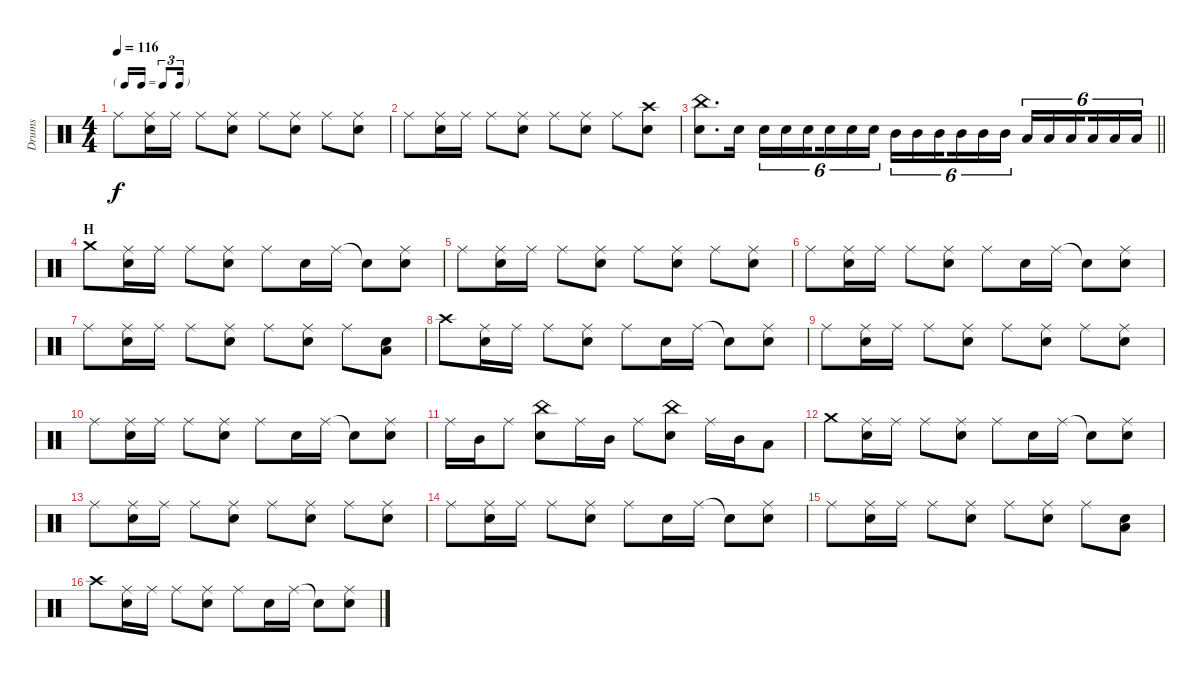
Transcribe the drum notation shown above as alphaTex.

\track ("Drums" "Drums") {instrument percussion}
\staff {score}
\articulation defaults
\ts (4 4)
\tf triplet16th
\tempo 116
\clef neutral
\ks c "Ride (middle)".8{dy f}
("Ride (middle)" "Snare (hit) 2").16 "Ride (middle)".16 "Ride (middle)".8 ("Ride (middle)" "Snare (hit) 2").8 "Ride (middle)".8 ("Ride (middle)" "Snare (hit) 2").8 "Ride (middle)".8 ("Ride (middle)" "Snare (hit) 2").8 |
"Ride (middle)".8 ("Ride (middle)" "Snare (hit) 2").16 "Ride (middle)".16 "Ride (middle)".8 ("Ride (middle)" "Snare (hit) 2").8 "Ride (middle)".8 ("Ride (middle)" "Snare (hit) 2").8 "Ride (middle)".8 ("Crash high (hit)" "Snare (hit) 2").8 |
\barLineRight lightlight
("China (hit)" "Snare (hit) 2").8{d} "Snare (hit) 2".16 "Snare (hit) 2".16{tu (6 4)} "Snare (hit) 2".16{tu (6 4)} "Snare (hit) 2".16{tu (6 4) beam splitsecondary} "Snare (hit) 2".16{tu (6 4)} "Snare (hit) 2".16{tu (6 4)} "Snare (hit) 2".16{tu (6 4)} "Mid Tom (hit)".16{tu (6 4)} "Mid Tom (hit)".16{tu (6 4)} "Mid Tom (hit)".16{tu (6 4) beam splitsecondary} "Mid Tom (hit)".16{tu (6 4)} "Mid Tom (hit)".16{tu (6 4)} "Mid Tom (hit)".16{tu (6 4)} "Low Tom (hit)".16{tu (6 4)} "Low Tom (hit)".16{tu (6 4)} "Low Tom (hit)".16{tu (6 4) beam splitsecondary} "Low Tom (hit)".16{tu (6 4)} "Low Tom (hit)".16{tu (6 4)} "Low Tom (hit)".16{tu (6 4)} |
\section ("" "H")
"Crash medium (hit)".8 ("Ride (middle)" "Snare (hit) 2").16 "Ride (middle)".16 "Ride (middle)".8 ("Ride (middle)" "Snare (hit) 2").8 "Ride (middle)".8 "Snare (hit) 2".16 "Ride (middle)".16 "Snare (hit)"{t}.8 ("Ride (middle)" "Snare (hit) 2").8 |
"Ride (middle)".8 ("Ride (middle)" "Snare (hit) 2").16 "Ride (middle)".16 "Ride (middle)".8 ("Ride (middle)" "Snare (hit) 2").8 "Ride (middle)".8 ("Ride (middle)" "Snare (hit) 2").8 "Ride (middle)".8 ("Ride (middle)" "Snare (hit) 2").8 |
"Ride (middle)".8 ("Ride (middle)" "Snare (hit) 2").16 "Ride (middle)".16 "Ride (middle)".8 ("Ride (middle)" "Snare (hit) 2").8 "Ride (middle)".8 "Snare (hit) 2".16 "Ride (middle)".16 "Snare (hit)"{t}.8 ("Ride (middle)" "Snare (hit) 2").8 |
"Ride (middle)".8 ("Ride (middle)" "Snare (hit) 2").16 "Ride (middle)".16 "Ride (middle)".8 ("Ride (middle)" "Snare (hit) 2").8 "Ride (middle)".8 ("Ride (middle)" "Snare (hit) 2").8 "Ride (middle)".8 ("Low Tom (hit)" "Snare (hit) 2").8 |
"Crash high (hit)".8 ("Ride (middle)" "Snare (hit) 2").16 "Ride (middle)".16 "Ride (middle)".8 ("Ride (middle)" "Snare (hit) 2").8 "Ride (middle)".8 "Snare (hit) 2".16 "Ride (middle)".16 "Snare (hit)"{t}.8 ("Ride (middle)" "Snare (hit) 2").8 |
"Ride (middle)".8 ("Ride (middle)" "Snare (hit) 2").16 "Ride (middle)".16 "Ride (middle)".8 ("Ride (middle)" "Snare (hit) 2").8 "Ride (middle)".8 ("Ride (middle)" "Snare (hit) 2").8 "Ride (middle)".8 ("Ride (middle)" "Snare (hit) 2").8 |
"Ride (middle)".8 ("Ride (middle)" "Snare (hit) 2").16 "Ride (middle)".16 "Ride (middle)".8 ("Ride (middle)" "Snare (hit) 2").8 "Ride (middle)".8 "Snare (hit) 2".16 "Ride (middle)".16 "Snare (hit)"{t}.8 ("Ride (middle)" "Snare (hit) 2").8 |
"Ride (middle)".16 "Mid Tom (hit)".16 "Ride (middle)".8 ("China (hit)" "Snare (hit) 2").8 "Ride (middle)".16 "Mid Tom (hit)".16 "Ride (middle)".8 ("China (hit)" "Snare (hit) 2").8 "Ride (middle)".16 "Mid Tom (hit)".16 "Low Tom (hit)".8 |
"Crash medium (hit)".8 ("Ride (middle)" "Snare (hit) 2").16 "Ride (middle)".16 "Ride (middle)".8 ("Ride (middle)" "Snare (hit) 2").8 "Ride (middle)".8 "Snare (hit) 2".16 "Ride (middle)".16 "Snare (hit)"{t}.8 ("Ride (middle)" "Snare (hit) 2").8 |
"Ride (middle)".8 ("Ride (middle)" "Snare (hit) 2").16 "Ride (middle)".16 "Ride (middle)".8 ("Ride (middle)" "Snare (hit) 2").8 "Ride (middle)".8 ("Ride (middle)" "Snare (hit) 2").8 "Ride (middle)".8 ("Ride (middle)" "Snare (hit) 2").8 |
"Ride (middle)".8 ("Ride (middle)" "Snare (hit) 2").16 "Ride (middle)".16 "Ride (middle)".8 ("Ride (middle)" "Snare (hit) 2").8 "Ride (middle)".8 "Snare (hit) 2".16 "Ride (middle)".16 "Snare (hit)"{t}.8 ("Ride (middle)" "Snare (hit) 2").8 |
"Ride (middle)".8 ("Ride (middle)" "Snare (hit) 2").16 "Ride (middle)".16 "Ride (middle)".8 ("Ride (middle)" "Snare (hit) 2").8 "Ride (middle)".8 ("Ride (middle)" "Snare (hit) 2").8 "Ride (middle)".8 ("Low Tom (hit)" "Snare (hit) 2").8 |
"Crash high (hit)".8 ("Ride (middle)" "Snare (hit) 2").16 "Ride (middle)".16 "Ride (middle)".8 ("Ride (middle)" "Snare (hit) 2").8 "Ride (middle)".8 "Snare (hit) 2".16 "Ride (middle)".16 "Snare (hit)"{t}.8 ("Ride (middle)" "Snare (hit) 2").8
